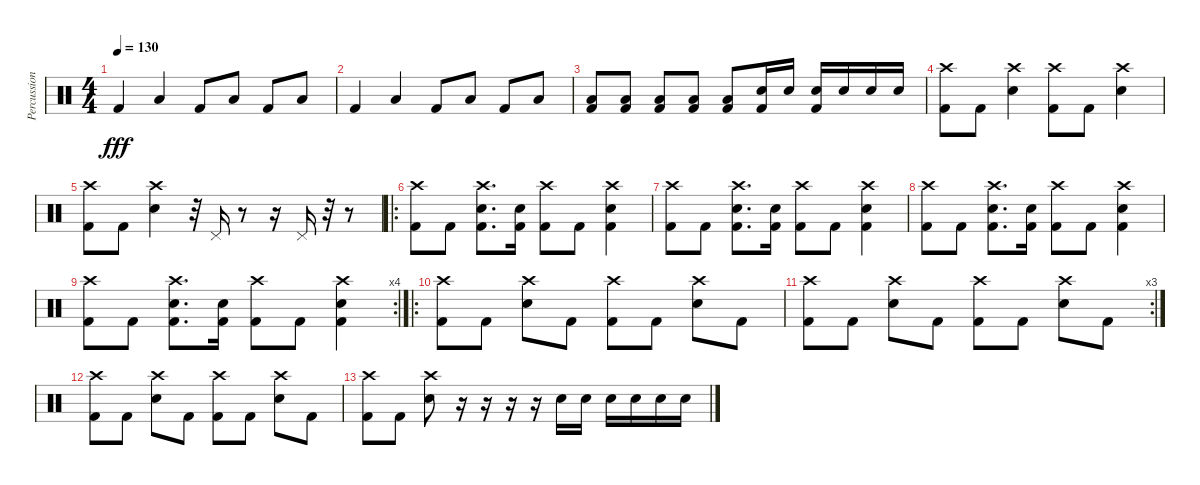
\track ("Percussion" "Percussion") {instrument percussion}
\staff {score}
\articulation defaults
\ts (4 4)
\tempo 130
\clef neutral
\ks c "Kick (hit) 2".4{dy fff} "Low Floor Tom (hit)".4 "Kick (hit) 2".8 "Low Floor Tom (hit)".8 "Kick (hit) 2".8 "Low Floor Tom (hit)".8
|
"Kick (hit) 2".4 "Low Floor Tom (hit)".4 "Kick (hit) 2".8 "Low Floor Tom (hit)".8 "Kick (hit) 2".8 "Low Floor Tom (hit)".8 |
("Low Floor Tom (hit)" "Kick (hit) 2").8 ("Low Floor Tom (hit)" "Kick (hit) 2").8 ("Low Floor Tom (hit)" "Kick (hit) 2").8 ("Low Floor Tom (hit)" "Kick (hit) 2").8 ("Low Floor Tom (hit)" "Kick (hit) 2").8 ("Electric Snare (hit)" "Kick (hit) 2").16 "Electric Snare (hit)".16 ("Electric Snare (hit)" "Kick (hit) 2").16 "Electric Snare (hit)".16 "Electric Snare (hit)".16 "Electric Snare (hit)".16 |
("Crash high (hit)" "Kick (hit) 2").8 "Kick (hit) 2".8 ("Crash high (hit)" "Electric Snare (hit)").4 ("Crash high (hit)" "Kick (hit) 2").8 "Kick (hit) 2".8 ("Crash high (hit)" "Electric Snare (hit)").4 |
("Crash high (hit)" "Kick (hit) 2").8 "Kick (hit) 2".8 ("Crash high (hit)" "Electric Snare (hit)").4 r.32 "Pedal Hi-Hat (hit)".16 r.8 r.16 "Pedal Hi-Hat (hit)".16 r.32 r.8 |
\ro
("Crash high (hit)" "Kick (hit) 2").8 "Kick (hit) 2".8 ("Crash high (hit)" "Electric Snare (hit)" "Kick (hit) 2").8{d} ("Electric Snare (hit)" "Kick (hit) 2").16 ("Crash high (hit)" "Kick (hit) 2").8 "Kick (hit) 2".8 ("Crash high (hit)" "Electric Snare (hit)" "Kick (hit) 2").4 |
("Crash high (hit)" "Kick (hit) 2").8 "Kick (hit) 2".8 ("Crash high (hit)" "Electric Snare (hit)" "Kick (hit) 2").8{d} ("Electric Snare (hit)" "Kick (hit) 2").16 ("Crash high (hit)" "Kick (hit) 2").8 "Kick (hit) 2".8 ("Crash high (hit)" "Electric Snare (hit)" "Kick (hit) 2").4 |
("Crash high (hit)" "Kick (hit) 2").8 "Kick (hit) 2".8 ("Crash high (hit)" "Electric Snare (hit)" "Kick (hit) 2").8{d} ("Electric Snare (hit)" "Kick (hit) 2").16 ("Crash high (hit)" "Kick (hit) 2").8 "Kick (hit) 2".8 ("Crash high (hit)" "Electric Snare (hit)" "Kick (hit) 2").4 |
\rc 4
("Crash high (hit)" "Kick (hit) 2").8 "Kick (hit) 2".8 ("Crash high (hit)" "Electric Snare (hit)" "Kick (hit) 2").8{d} ("Electric Snare (hit)" "Kick (hit) 2").16 ("Crash high (hit)" "Kick (hit) 2").8 "Kick (hit) 2".8 ("Crash high (hit)" "Electric Snare (hit)" "Kick (hit) 2").4 |
\ro
("Crash high (hit)" "Kick (hit) 2").8 "Kick (hit) 2".8 ("Crash high (hit)" "Electric Snare (hit)").8 "Kick (hit) 2".8 ("Crash high (hit)" "Kick (hit) 2").8 "Kick (hit) 2".8 ("Crash high (hit)" "Electric Snare (hit)").8 "Kick (hit) 2".8 |
\rc 3
("Crash high (hit)" "Kick (hit) 2").8 "Kick (hit) 2".8 ("Crash high (hit)" "Electric Snare (hit)").8 "Kick (hit) 2".8 ("Crash high (hit)" "Kick (hit) 2").8 "Kick (hit) 2".8 ("Crash high (hit)" "Electric Snare (hit)").8 "Kick (hit) 2".8 |
("Crash high (hit)" "Kick (hit) 2").8 "Kick (hit) 2".8 ("Crash high (hit)" "Electric Snare (hit)").8 "Kick (hit) 2".8 ("Crash high (hit)" "Kick (hit) 2").8 "Kick (hit) 2".8 ("Crash high (hit)" "Electric Snare (hit)").8 "Kick (hit) 2".8 |
("Crash high (hit)" "Kick (hit) 2").8 "Kick (hit) 2".8 ("Crash high (hit)" "Electric Snare (hit)").8 r.16 r.16 r.16 r.16 "Electric Snare (hit)".16 "Electric Snare (hit)".16 "Electric Snare (hit)".16 "Electric Snare (hit)".16 "Electric Snare (hit)".16 "Electric Snare (hit)".16
